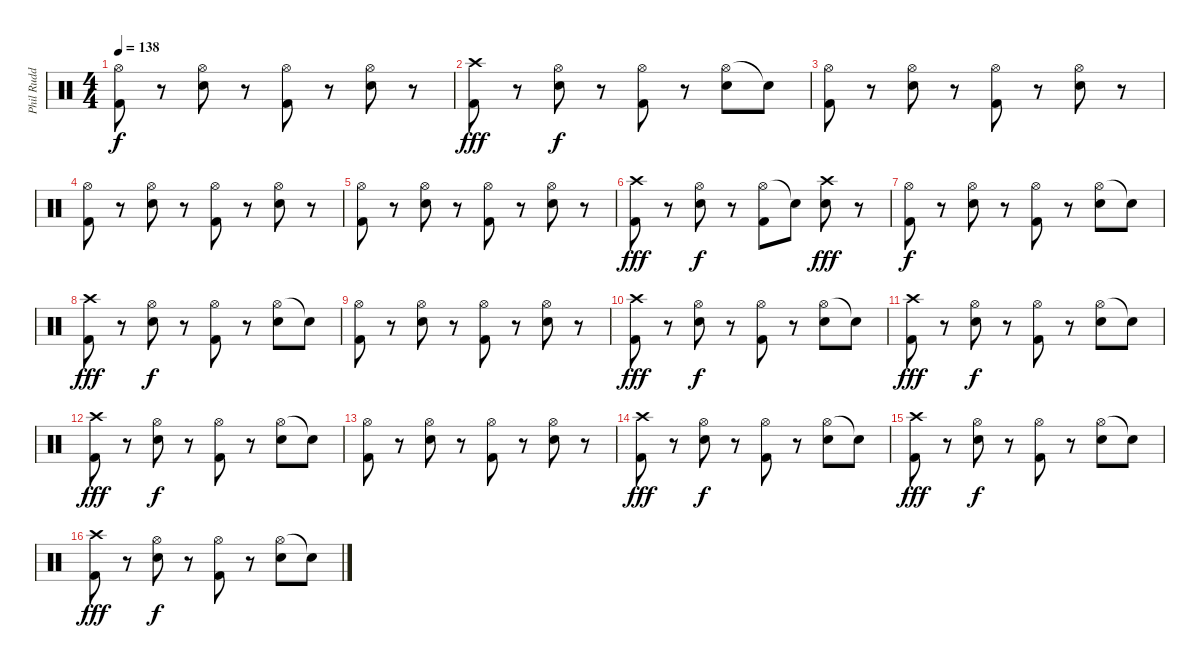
\track ("Phil Rudd" "Phil Rudd") {instrument percussion}
\staff {score}
\articulation defaults
\ts (4 4)
\tempo 138
\clef neutral
\ks c
("Hi-Hat (open)" "Kick (hit) 2").8{dy f} r.8 ("Hi-Hat (open)" "Snare (hit) 2").8 r.8 ("Hi-Hat (open)" "Kick (hit) 2").8 r.8 ("Hi-Hat (open)" "Snare (hit) 2").8 r.8 |
("Crash high (hit)" "Kick (hit) 2").8{dy fff} r.8 ("Hi-Hat (open)" "Snare (hit) 2").8{dy f} r.8 ("Hi-Hat (open)" "Kick (hit) 2").8 r.8 ("Hi-Hat (open)" "Snare (hit) 2").8 "Snare (hit)"{t}.8 |
("Hi-Hat (open)" "Kick (hit) 2").8 r.8 ("Hi-Hat (open)" "Snare (hit) 2").8 r.8 ("Hi-Hat (open)" "Kick (hit) 2").8 r.8 ("Hi-Hat (open)" "Snare (hit) 2").8 r.8 |
("Hi-Hat (open)" "Kick (hit) 2").8 r.8 ("Hi-Hat (open)" "Snare (hit) 2").8 r.8 ("Hi-Hat (open)" "Kick (hit) 2").8 r.8 ("Hi-Hat (open)" "Snare (hit) 2").8 r.8 |
("Hi-Hat (open)" "Kick (hit) 2").8 r.8 ("Hi-Hat (open)" "Snare (hit) 2").8 r.8 ("Hi-Hat (open)" "Kick (hit) 2").8 r.8 ("Hi-Hat (open)" "Snare (hit) 2").8 r.8 |
("Crash high (hit)" "Kick (hit) 2").8{dy fff} r.8 ("Hi-Hat (open)" "Snare (hit) 2").8{dy f} r.8 ("Hi-Hat (open)" "Kick (hit) 2").8 "Snare (hit)"{t}.8 ("Crash high (hit)" "Snare (hit) 2").8{dy fff} r.8 |
("Hi-Hat (open)" "Kick (hit) 2").8{dy f} r.8 ("Hi-Hat (open)" "Snare (hit) 2").8 r.8 ("Hi-Hat (open)" "Kick (hit) 2").8 r.8 ("Hi-Hat (open)" "Snare (hit) 2").8 "Snare (hit)"{t}.8 |
("Crash high (hit)" "Kick (hit) 2").8{dy fff} r.8 ("Hi-Hat (open)" "Snare (hit) 2").8{dy f} r.8 ("Hi-Hat (open)" "Kick (hit) 2").8 r.8 ("Hi-Hat (open)" "Snare (hit) 2").8 "Snare (hit)"{t}.8 |
("Hi-Hat (open)" "Kick (hit) 2").8 r.8 ("Hi-Hat (open)" "Snare (hit) 2").8 r.8 ("Hi-Hat (open)" "Kick (hit) 2").8 r.8 ("Hi-Hat (open)" "Snare (hit) 2").8 r.8 |
("Crash high (hit)" "Kick (hit) 2").8{dy fff} r.8 ("Hi-Hat (open)" "Snare (hit) 2").8{dy f} r.8 ("Hi-Hat (open)" "Kick (hit) 2").8 r.8 ("Hi-Hat (open)" "Snare (hit) 2").8 "Snare (hit)"{t}.8 |
("Crash high (hit)" "Kick (hit) 2").8{dy fff} r.8 ("Hi-Hat (open)" "Snare (hit) 2").8{dy f} r.8 ("Hi-Hat (open)" "Kick (hit) 2").8 r.8 ("Hi-Hat (open)" "Snare (hit) 2").8 "Snare (hit)"{t}.8 |
("Crash high (hit)" "Kick (hit) 2").8{dy fff} r.8 ("Hi-Hat (open)" "Snare (hit) 2").8{dy f} r.8 ("Hi-Hat (open)" "Kick (hit) 2").8 r.8 ("Hi-Hat (open)" "Snare (hit) 2").8 "Snare (hit)"{t}.8 |
("Hi-Hat (open)" "Kick (hit) 2").8 r.8 ("Hi-Hat (open)" "Snare (hit) 2").8 r.8 ("Hi-Hat (open)" "Kick (hit) 2").8 r.8 ("Hi-Hat (open)" "Snare (hit) 2").8 r.8 |
("Crash high (hit)" "Kick (hit) 2").8{dy fff} r.8 ("Hi-Hat (open)" "Snare (hit) 2").8{dy f} r.8 ("Hi-Hat (open)" "Kick (hit) 2").8 r.8 ("Hi-Hat (open)" "Snare (hit) 2").8 "Snare (hit)"{t}.8 |
("Crash high (hit)" "Kick (hit) 2").8{dy fff} r.8 ("Hi-Hat (open)" "Snare (hit) 2").8{dy f} r.8 ("Hi-Hat (open)" "Kick (hit) 2").8 r.8 ("Hi-Hat (open)" "Snare (hit) 2").8 "Snare (hit)"{t}.8 |
("Crash high (hit)" "Kick (hit) 2").8{dy fff} r.8 ("Hi-Hat (open)" "Snare (hit) 2").8{dy f} r.8 ("Hi-Hat (open)" "Kick (hit) 2").8 r.8 ("Hi-Hat (open)" "Snare (hit) 2").8 "Snare (hit)"{t}.8
